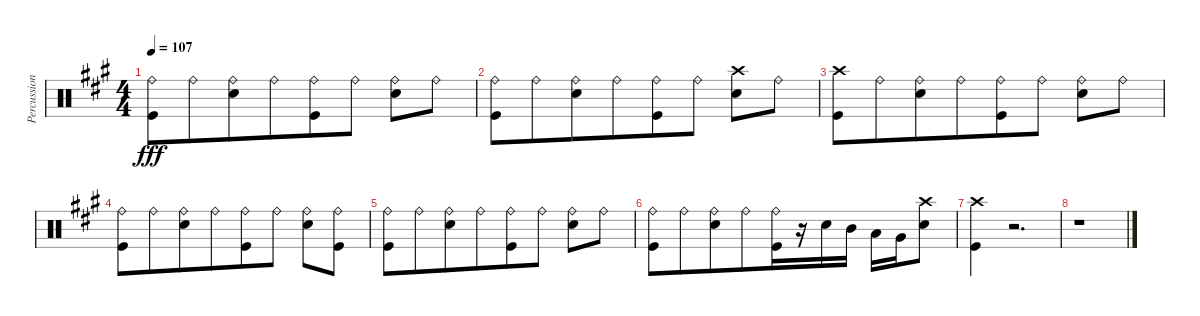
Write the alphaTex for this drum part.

\track ("Percussion" "Percussion") {instrument percussion}
\staff {score}
\articulation defaults
\ts (4 4)
\tempo 107
\clef neutral
\ks a
("Kick (hit)" "Ride (bell)").8{dy fff} "Ride (bell)".8{beam merge} ("Electric Snare (hit)" "Ride (bell)").8{beam merge} "Ride (bell)".8{beam merge} ("Ride (bell)" "Kick (hit)").8{beam merge} "Ride (bell)".8 ("Ride (bell)" "Electric Snare (hit)").8{beam merge} "Ride (bell)".8 |
("Kick (hit)" "Ride (bell)").8 "Ride (bell)".8{beam merge} ("Electric Snare (hit)" "Ride (bell)").8{beam merge} "Ride (bell)".8{beam merge} ("Ride (bell)" "Kick (hit)").8{beam merge} "Ride (bell)".8 ("Crash high (hit)" "Electric Snare (hit)").8{beam merge} "Ride (bell)".8 |
("Kick (hit)" "Crash high (hit)").8 "Ride (bell)".8{beam merge} ("Electric Snare (hit)" "Ride (bell)").8{beam merge} "Ride (bell)".8{beam merge} ("Ride (bell)" "Kick (hit)").8{beam merge} "Ride (bell)".8 ("Ride (bell)" "Electric Snare (hit)").8{beam merge} "Ride (bell)".8 |
("Kick (hit)" "Ride (bell)").8 "Ride (bell)".8{beam merge} ("Electric Snare (hit)" "Ride (bell)").8{beam merge} "Ride (bell)".8{beam merge} ("Ride (bell)" "Kick (hit)").8{beam merge} "Ride (bell)".8 ("Ride (bell)" "Electric Snare (hit)").8{beam merge} ("Ride (bell)" "Kick (hit)").8 |
("Kick (hit)" "Ride (bell)").8 "Ride (bell)".8{beam merge} ("Electric Snare (hit)" "Ride (bell)").8{beam merge} "Ride (bell)".8{beam merge} ("Ride (bell)" "Kick (hit)").8{beam merge} "Ride (bell)".8 ("Ride (bell)" "Electric Snare (hit)").8{beam merge} "Ride (bell)".8 |
("Kick (hit)" "Ride (bell)").8 "Ride (bell)".8{beam merge} ("Electric Snare (hit)" "Ride (bell)").8{beam merge} "Ride (bell)".8{beam merge} ("Kick (hit)" "Ride (bell)").16{beam merge} r.16 "Electric Snare (hit)".16{beam merge} "Mid Tom (hit)".16 "Low Tom (hit)".16{beam merge} "Very Low Tom (hit)".16 ("Electric Snare (hit)" "Crash high (hit)").8 |
("Kick (hit)" "Crash high (hit)").4 r.2{d} |
r.1
